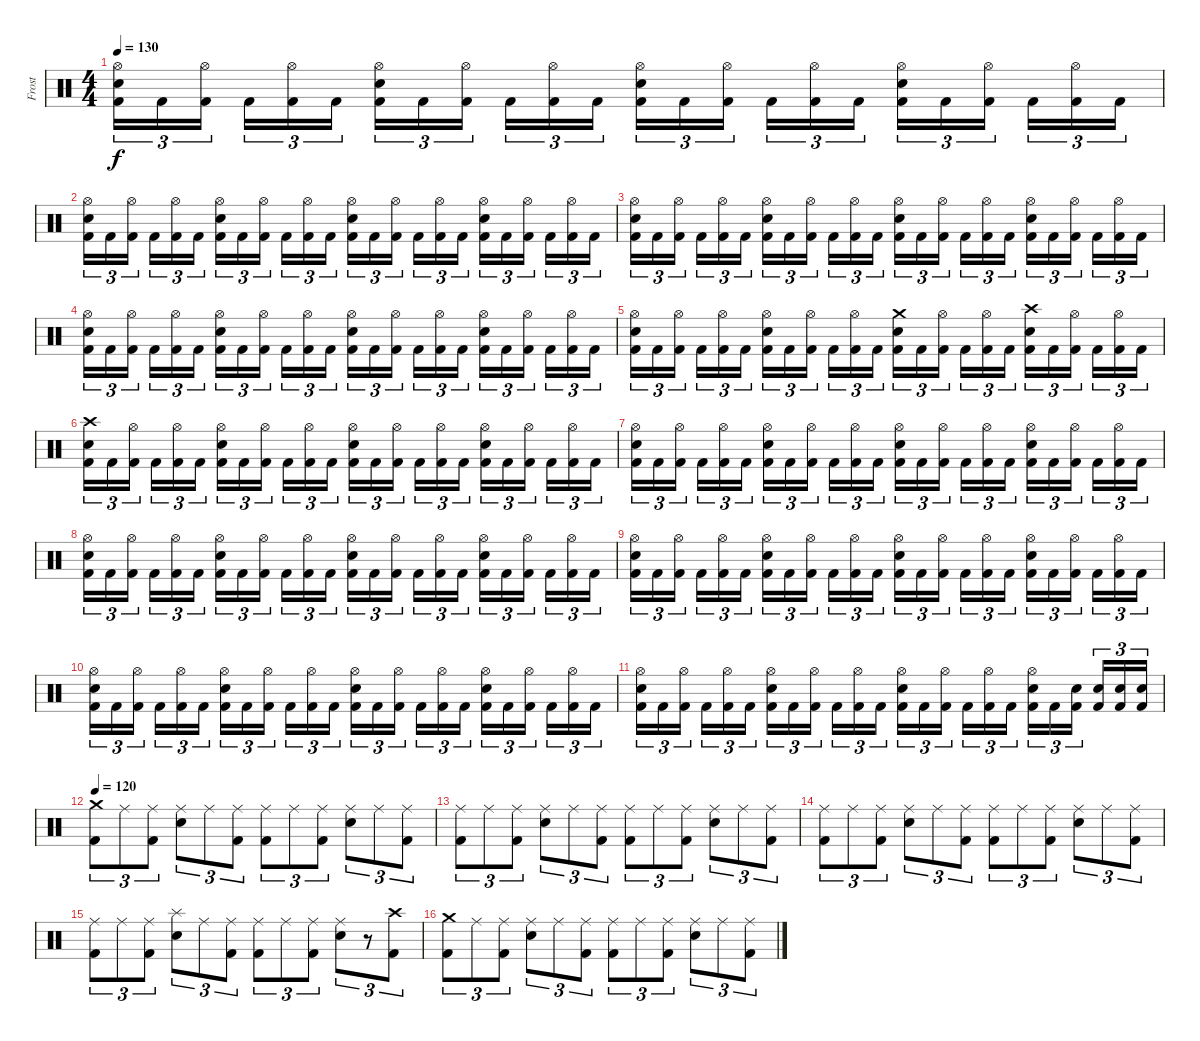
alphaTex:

\track ("Frost" "Frost") {instrument percussion}
\staff {score}
\articulation defaults
\ts (4 4)
\tempo 130
\clef neutral
\ks c
("Hi-Hat (open)" "Electric Snare (hit)" "Kick (hit) 2").16{tu (3 2) dy f} "Kick (hit) 2".16{tu (3 2)} ("Hi-Hat (open)" "Kick (hit) 2").16{tu (3 2)} "Kick (hit) 2".16{tu (3 2)} ("Hi-Hat (open)" "Kick (hit) 2").16{tu (3 2)} "Kick (hit) 2".16{tu (3 2)} ("Hi-Hat (open)" "Electric Snare (hit)" "Kick (hit) 2").16{tu (3 2)} "Kick (hit) 2".16{tu (3 2)} ("Hi-Hat (open)" "Kick (hit) 2").16{tu (3 2)} "Kick (hit) 2".16{tu (3 2)} ("Hi-Hat (open)" "Kick (hit) 2").16{tu (3 2)} "Kick (hit) 2".16{tu (3 2)} ("Hi-Hat (open)" "Electric Snare (hit)" "Kick (hit) 2").16{tu (3 2)} "Kick (hit) 2".16{tu (3 2)} ("Hi-Hat (open)" "Kick (hit) 2").16{tu (3 2)} "Kick (hit) 2".16{tu (3 2)} ("Hi-Hat (open)" "Kick (hit) 2").16{tu (3 2)} "Kick (hit) 2".16{tu (3 2)} ("Hi-Hat (open)" "Electric Snare (hit)" "Kick (hit) 2").16{tu (3 2)} "Kick (hit) 2".16{tu (3 2)} ("Hi-Hat (open)" "Kick (hit) 2").16{tu (3 2)} "Kick (hit) 2".16{tu (3 2)} ("Hi-Hat (open)" "Kick (hit) 2").16{tu (3 2)} "Kick (hit) 2".16{tu (3 2)} |
("Hi-Hat (open)" "Electric Snare (hit)" "Kick (hit) 2").16{tu (3 2)} "Kick (hit) 2".16{tu (3 2)} ("Hi-Hat (open)" "Kick (hit) 2").16{tu (3 2)} "Kick (hit) 2".16{tu (3 2)} ("Hi-Hat (open)" "Kick (hit) 2").16{tu (3 2)} "Kick (hit) 2".16{tu (3 2)} ("Hi-Hat (open)" "Electric Snare (hit)" "Kick (hit) 2").16{tu (3 2)} "Kick (hit) 2".16{tu (3 2)} ("Hi-Hat (open)" "Kick (hit) 2").16{tu (3 2)} "Kick (hit) 2".16{tu (3 2)} ("Hi-Hat (open)" "Kick (hit) 2").16{tu (3 2)} "Kick (hit) 2".16{tu (3 2)} ("Hi-Hat (open)" "Electric Snare (hit)" "Kick (hit) 2").16{tu (3 2)} "Kick (hit) 2".16{tu (3 2)} ("Hi-Hat (open)" "Kick (hit) 2").16{tu (3 2)} "Kick (hit) 2".16{tu (3 2)} ("Hi-Hat (open)" "Kick (hit) 2").16{tu (3 2)} "Kick (hit) 2".16{tu (3 2)} ("Hi-Hat (open)" "Electric Snare (hit)" "Kick (hit) 2").16{tu (3 2)} "Kick (hit) 2".16{tu (3 2)} ("Hi-Hat (open)" "Kick (hit) 2").16{tu (3 2)} "Kick (hit) 2".16{tu (3 2)} ("Hi-Hat (open)" "Kick (hit) 2").16{tu (3 2)} "Kick (hit) 2".16{tu (3 2)} |
("Hi-Hat (open)" "Electric Snare (hit)" "Kick (hit) 2").16{tu (3 2)} "Kick (hit) 2".16{tu (3 2)} ("Hi-Hat (open)" "Kick (hit) 2").16{tu (3 2)} "Kick (hit) 2".16{tu (3 2)} ("Hi-Hat (open)" "Kick (hit) 2").16{tu (3 2)} "Kick (hit) 2".16{tu (3 2)} ("Hi-Hat (open)" "Electric Snare (hit)" "Kick (hit) 2").16{tu (3 2)} "Kick (hit) 2".16{tu (3 2)} ("Hi-Hat (open)" "Kick (hit) 2").16{tu (3 2)} "Kick (hit) 2".16{tu (3 2)} ("Hi-Hat (open)" "Kick (hit) 2").16{tu (3 2)} "Kick (hit) 2".16{tu (3 2)} ("Hi-Hat (open)" "Electric Snare (hit)" "Kick (hit) 2").16{tu (3 2)} "Kick (hit) 2".16{tu (3 2)} ("Hi-Hat (open)" "Kick (hit) 2").16{tu (3 2)} "Kick (hit) 2".16{tu (3 2)} ("Hi-Hat (open)" "Kick (hit) 2").16{tu (3 2)} "Kick (hit) 2".16{tu (3 2)} ("Hi-Hat (open)" "Electric Snare (hit)" "Kick (hit) 2").16{tu (3 2)} "Kick (hit) 2".16{tu (3 2)} ("Hi-Hat (open)" "Kick (hit) 2").16{tu (3 2)} "Kick (hit) 2".16{tu (3 2)} ("Hi-Hat (open)" "Kick (hit) 2").16{tu (3 2)} "Kick (hit) 2".16{tu (3 2)} |
("Hi-Hat (open)" "Electric Snare (hit)" "Kick (hit) 2").16{tu (3 2)} "Kick (hit) 2".16{tu (3 2)} ("Hi-Hat (open)" "Kick (hit) 2").16{tu (3 2)} "Kick (hit) 2".16{tu (3 2)} ("Hi-Hat (open)" "Kick (hit) 2").16{tu (3 2)} "Kick (hit) 2".16{tu (3 2)} ("Hi-Hat (open)" "Electric Snare (hit)" "Kick (hit) 2").16{tu (3 2)} "Kick (hit) 2".16{tu (3 2)} ("Hi-Hat (open)" "Kick (hit) 2").16{tu (3 2)} "Kick (hit) 2".16{tu (3 2)} ("Hi-Hat (open)" "Kick (hit) 2").16{tu (3 2)} "Kick (hit) 2".16{tu (3 2)} ("Hi-Hat (open)" "Electric Snare (hit)" "Kick (hit) 2").16{tu (3 2)} "Kick (hit) 2".16{tu (3 2)} ("Hi-Hat (open)" "Kick (hit) 2").16{tu (3 2)} "Kick (hit) 2".16{tu (3 2)} ("Hi-Hat (open)" "Kick (hit) 2").16{tu (3 2)} "Kick (hit) 2".16{tu (3 2)} ("Hi-Hat (open)" "Electric Snare (hit)" "Kick (hit) 2").16{tu (3 2)} "Kick (hit) 2".16{tu (3 2)} ("Hi-Hat (open)" "Kick (hit) 2").16{tu (3 2)} "Kick (hit) 2".16{tu (3 2)} ("Hi-Hat (open)" "Kick (hit) 2").16{tu (3 2)} "Kick (hit) 2".16{tu (3 2)} |
("Hi-Hat (open)" "Electric Snare (hit)" "Kick (hit) 2").16{tu (3 2)} "Kick (hit) 2".16{tu (3 2)} ("Hi-Hat (open)" "Kick (hit) 2").16{tu (3 2)} "Kick (hit) 2".16{tu (3 2)} ("Hi-Hat (open)" "Kick (hit) 2").16{tu (3 2)} "Kick (hit) 2".16{tu (3 2)} ("Hi-Hat (open)" "Electric Snare (hit)" "Kick (hit) 2").16{tu (3 2)} "Kick (hit) 2".16{tu (3 2)} ("Hi-Hat (open)" "Kick (hit) 2").16{tu (3 2)} "Kick (hit) 2".16{tu (3 2)} ("Hi-Hat (open)" "Kick (hit) 2").16{tu (3 2)} "Kick (hit) 2".16{tu (3 2)} ("Crash medium (hit)" "Electric Snare (hit)" "Kick (hit) 2").16{tu (3 2)} "Kick (hit) 2".16{tu (3 2)} ("Hi-Hat (open)" "Kick (hit) 2").16{tu (3 2)} "Kick (hit) 2".16{tu (3 2)} ("Hi-Hat (open)" "Kick (hit) 2").16{tu (3 2)} "Kick (hit) 2".16{tu (3 2)} ("Crash high (hit)" "Electric Snare (hit)" "Kick (hit) 2").16{tu (3 2)} "Kick (hit) 2".16{tu (3 2)} ("Hi-Hat (open)" "Kick (hit) 2").16{tu (3 2)} "Kick (hit) 2".16{tu (3 2)} ("Hi-Hat (open)" "Kick (hit) 2").16{tu (3 2)} "Kick (hit) 2".16{tu (3 2)} |
("Crash high (hit)" "Electric Snare (hit)" "Kick (hit) 2").16{tu (3 2)} "Kick (hit) 2".16{tu (3 2)} ("Hi-Hat (open)" "Kick (hit) 2").16{tu (3 2)} "Kick (hit) 2".16{tu (3 2)} ("Hi-Hat (open)" "Kick (hit) 2").16{tu (3 2)} "Kick (hit) 2".16{tu (3 2)} ("Hi-Hat (open)" "Electric Snare (hit)" "Kick (hit) 2").16{tu (3 2)} "Kick (hit) 2".16{tu (3 2)} ("Hi-Hat (open)" "Kick (hit) 2").16{tu (3 2)} "Kick (hit) 2".16{tu (3 2)} ("Hi-Hat (open)" "Kick (hit) 2").16{tu (3 2)} "Kick (hit) 2".16{tu (3 2)} ("Hi-Hat (open)" "Electric Snare (hit)" "Kick (hit) 2").16{tu (3 2)} "Kick (hit) 2".16{tu (3 2)} ("Hi-Hat (open)" "Kick (hit) 2").16{tu (3 2)} "Kick (hit) 2".16{tu (3 2)} ("Hi-Hat (open)" "Kick (hit) 2").16{tu (3 2)} "Kick (hit) 2".16{tu (3 2)} ("Hi-Hat (open)" "Electric Snare (hit)" "Kick (hit) 2").16{tu (3 2)} "Kick (hit) 2".16{tu (3 2)} ("Hi-Hat (open)" "Kick (hit) 2").16{tu (3 2)} "Kick (hit) 2".16{tu (3 2)} ("Hi-Hat (open)" "Kick (hit) 2").16{tu (3 2)} "Kick (hit) 2".16{tu (3 2)} |
("Hi-Hat (open)" "Electric Snare (hit)" "Kick (hit) 2").16{tu (3 2)} "Kick (hit) 2".16{tu (3 2)} ("Hi-Hat (open)" "Kick (hit) 2").16{tu (3 2)} "Kick (hit) 2".16{tu (3 2)} ("Hi-Hat (open)" "Kick (hit) 2").16{tu (3 2)} "Kick (hit) 2".16{tu (3 2)} ("Hi-Hat (open)" "Electric Snare (hit)" "Kick (hit) 2").16{tu (3 2)} "Kick (hit) 2".16{tu (3 2)} ("Hi-Hat (open)" "Kick (hit) 2").16{tu (3 2)} "Kick (hit) 2".16{tu (3 2)} ("Hi-Hat (open)" "Kick (hit) 2").16{tu (3 2)} "Kick (hit) 2".16{tu (3 2)} ("Hi-Hat (open)" "Electric Snare (hit)" "Kick (hit) 2").16{tu (3 2)} "Kick (hit) 2".16{tu (3 2)} ("Hi-Hat (open)" "Kick (hit) 2").16{tu (3 2)} "Kick (hit) 2".16{tu (3 2)} ("Hi-Hat (open)" "Kick (hit) 2").16{tu (3 2)} "Kick (hit) 2".16{tu (3 2)} ("Hi-Hat (open)" "Electric Snare (hit)" "Kick (hit) 2").16{tu (3 2)} "Kick (hit) 2".16{tu (3 2)} ("Hi-Hat (open)" "Kick (hit) 2").16{tu (3 2)} "Kick (hit) 2".16{tu (3 2)} ("Hi-Hat (open)" "Kick (hit) 2").16{tu (3 2)} "Kick (hit) 2".16{tu (3 2)} |
("Hi-Hat (open)" "Electric Snare (hit)" "Kick (hit) 2").16{tu (3 2)} "Kick (hit) 2".16{tu (3 2)} ("Hi-Hat (open)" "Kick (hit) 2").16{tu (3 2)} "Kick (hit) 2".16{tu (3 2)} ("Hi-Hat (open)" "Kick (hit) 2").16{tu (3 2)} "Kick (hit) 2".16{tu (3 2)} ("Hi-Hat (open)" "Electric Snare (hit)" "Kick (hit) 2").16{tu (3 2)} "Kick (hit) 2".16{tu (3 2)} ("Hi-Hat (open)" "Kick (hit) 2").16{tu (3 2)} "Kick (hit) 2".16{tu (3 2)} ("Hi-Hat (open)" "Kick (hit) 2").16{tu (3 2)} "Kick (hit) 2".16{tu (3 2)} ("Hi-Hat (open)" "Electric Snare (hit)" "Kick (hit) 2").16{tu (3 2)} "Kick (hit) 2".16{tu (3 2)} ("Hi-Hat (open)" "Kick (hit) 2").16{tu (3 2)} "Kick (hit) 2".16{tu (3 2)} ("Hi-Hat (open)" "Kick (hit) 2").16{tu (3 2)} "Kick (hit) 2".16{tu (3 2)} ("Hi-Hat (open)" "Electric Snare (hit)" "Kick (hit) 2").16{tu (3 2)} "Kick (hit) 2".16{tu (3 2)} ("Hi-Hat (open)" "Kick (hit) 2").16{tu (3 2)} "Kick (hit) 2".16{tu (3 2)} ("Hi-Hat (open)" "Kick (hit) 2").16{tu (3 2)} "Kick (hit) 2".16{tu (3 2)} |
("Hi-Hat (open)" "Electric Snare (hit)" "Kick (hit) 2").16{tu (3 2)} "Kick (hit) 2".16{tu (3 2)} ("Hi-Hat (open)" "Kick (hit) 2").16{tu (3 2)} "Kick (hit) 2".16{tu (3 2)} ("Hi-Hat (open)" "Kick (hit) 2").16{tu (3 2)} "Kick (hit) 2".16{tu (3 2)} ("Hi-Hat (open)" "Electric Snare (hit)" "Kick (hit) 2").16{tu (3 2)} "Kick (hit) 2".16{tu (3 2)} ("Hi-Hat (open)" "Kick (hit) 2").16{tu (3 2)} "Kick (hit) 2".16{tu (3 2)} ("Hi-Hat (open)" "Kick (hit) 2").16{tu (3 2)} "Kick (hit) 2".16{tu (3 2)} ("Hi-Hat (open)" "Electric Snare (hit)" "Kick (hit) 2").16{tu (3 2)} "Kick (hit) 2".16{tu (3 2)} ("Hi-Hat (open)" "Kick (hit) 2").16{tu (3 2)} "Kick (hit) 2".16{tu (3 2)} ("Hi-Hat (open)" "Kick (hit) 2").16{tu (3 2)} "Kick (hit) 2".16{tu (3 2)} ("Hi-Hat (open)" "Electric Snare (hit)" "Kick (hit) 2").16{tu (3 2)} "Kick (hit) 2".16{tu (3 2)} ("Hi-Hat (open)" "Kick (hit) 2").16{tu (3 2)} "Kick (hit) 2".16{tu (3 2)} ("Hi-Hat (open)" "Kick (hit) 2").16{tu (3 2)} "Kick (hit) 2".16{tu (3 2)} |
("Hi-Hat (open)" "Electric Snare (hit)" "Kick (hit) 2").16{tu (3 2)} "Kick (hit) 2".16{tu (3 2)} ("Hi-Hat (open)" "Kick (hit) 2").16{tu (3 2)} "Kick (hit) 2".16{tu (3 2)} ("Hi-Hat (open)" "Kick (hit) 2").16{tu (3 2)} "Kick (hit) 2".16{tu (3 2)} ("Hi-Hat (open)" "Electric Snare (hit)" "Kick (hit) 2").16{tu (3 2)} "Kick (hit) 2".16{tu (3 2)} ("Hi-Hat (open)" "Kick (hit) 2").16{tu (3 2)} "Kick (hit) 2".16{tu (3 2)} ("Hi-Hat (open)" "Kick (hit) 2").16{tu (3 2)} "Kick (hit) 2".16{tu (3 2)} ("Hi-Hat (open)" "Electric Snare (hit)" "Kick (hit) 2").16{tu (3 2)} "Kick (hit) 2".16{tu (3 2)} ("Hi-Hat (open)" "Kick (hit) 2").16{tu (3 2)} "Kick (hit) 2".16{tu (3 2)} ("Hi-Hat (open)" "Kick (hit) 2").16{tu (3 2)} "Kick (hit) 2".16{tu (3 2)} ("Hi-Hat (open)" "Electric Snare (hit)" "Kick (hit) 2").16{tu (3 2)} "Kick (hit) 2".16{tu (3 2)} ("Hi-Hat (open)" "Kick (hit) 2").16{tu (3 2)} "Kick (hit) 2".16{tu (3 2)} ("Hi-Hat (open)" "Kick (hit) 2").16{tu (3 2)} "Kick (hit) 2".16{tu (3 2)} |
("Hi-Hat (open)" "Electric Snare (hit)" "Kick (hit) 2").16{tu (3 2)} "Kick (hit) 2".16{tu (3 2)} ("Hi-Hat (open)" "Kick (hit) 2").16{tu (3 2)} "Kick (hit) 2".16{tu (3 2)} ("Hi-Hat (open)" "Kick (hit) 2").16{tu (3 2)} "Kick (hit) 2".16{tu (3 2)} ("Hi-Hat (open)" "Electric Snare (hit)" "Kick (hit) 2").16{tu (3 2)} "Kick (hit) 2".16{tu (3 2)} ("Hi-Hat (open)" "Kick (hit) 2").16{tu (3 2)} "Kick (hit) 2".16{tu (3 2)} ("Hi-Hat (open)" "Kick (hit) 2").16{tu (3 2)} "Kick (hit) 2".16{tu (3 2)} ("Hi-Hat (open)" "Electric Snare (hit)" "Kick (hit) 2").16{tu (3 2)} "Kick (hit) 2".16{tu (3 2)} ("Hi-Hat (open)" "Kick (hit) 2").16{tu (3 2)} "Kick (hit) 2".16{tu (3 2)} ("Hi-Hat (open)" "Kick (hit) 2").16{tu (3 2)} "Kick (hit) 2".16{tu (3 2)} ("Hi-Hat (open)" "Electric Snare (hit)" "Kick (hit) 2").16{tu (3 2)} "Kick (hit) 2".16{tu (3 2)} ("Electric Snare (hit)" "Kick (hit) 2").16{tu (3 2)} ("Electric Snare (hit)" "Kick (hit) 2").16{tu (3 2)} ("Electric Snare (hit)" "Kick (hit) 2").16{tu (3 2)} ("Electric Snare (hit)" "Kick (hit) 2").16{tu (3 2)} |
\tempo 120
("Crash medium (hit)" "Kick (hit) 2").8{tu (3 2)} "Ride (middle)".8{tu (3 2)} ("Ride (middle)" "Kick (hit) 2").8{tu (3 2)} ("Ride (middle)" "Electric Snare (hit)").8{tu (3 2)} "Ride (middle)".8{tu (3 2)} ("Ride (middle)" "Kick (hit) 2").8{tu (3 2)} ("Ride (middle)" "Kick (hit) 2").8{tu (3 2)} "Ride (middle)".8{tu (3 2)} ("Ride (middle)" "Kick (hit) 2").8{tu (3 2)} ("Ride (middle)" "Electric Snare (hit)").8{tu (3 2)} "Ride (middle)".8{tu (3 2)} ("Ride (middle)" "Kick (hit) 2").8{tu (3 2)} |
("Ride (middle)" "Kick (hit) 2").8{tu (3 2)} "Ride (middle)".8{tu (3 2)} ("Ride (middle)" "Kick (hit) 2").8{tu (3 2)} ("Ride (middle)" "Electric Snare (hit)").8{tu (3 2)} "Ride (middle)".8{tu (3 2)} ("Ride (middle)" "Kick (hit) 2").8{tu (3 2)} ("Ride (middle)" "Kick (hit) 2").8{tu (3 2)} "Ride (middle)".8{tu (3 2)} ("Ride (middle)" "Kick (hit) 2").8{tu (3 2)} ("Ride (middle)" "Electric Snare (hit)").8{tu (3 2)} "Ride (middle)".8{tu (3 2)} ("Ride (middle)" "Kick (hit) 2").8{tu (3 2)} |
("Ride (middle)" "Kick (hit) 2").8{tu (3 2)} "Ride (middle)".8{tu (3 2)} ("Ride (middle)" "Kick (hit) 2").8{tu (3 2)} ("Ride (middle)" "Electric Snare (hit)").8{tu (3 2)} "Ride (middle)".8{tu (3 2)} ("Ride (middle)" "Kick (hit) 2").8{tu (3 2)} ("Ride (middle)" "Kick (hit) 2").8{tu (3 2)} "Ride (middle)".8{tu (3 2)} ("Ride (middle)" "Kick (hit) 2").8{tu (3 2)} ("Ride (middle)" "Electric Snare (hit)").8{tu (3 2)} "Ride (middle)".8{tu (3 2)} ("Ride (middle)" "Kick (hit) 2").8{tu (3 2)} |
("Ride (middle)" "Kick (hit) 2").8{tu (3 2)} "Ride (middle)".8{tu (3 2)} ("Ride (middle)" "Kick (hit) 2").8{tu (3 2)} ("Splash (hit)" "Electric Snare (hit)").8{tu (3 2)} "Ride (middle)".8{tu (3 2)} ("Ride (middle)" "Kick (hit) 2").8{tu (3 2)} ("Ride (middle)" "Kick (hit) 2").8{tu (3 2)} "Ride (middle)".8{tu (3 2)} ("Ride (middle)" "Kick (hit) 2").8{tu (3 2)} ("Ride (middle)" "Electric Snare (hit)").8{tu (3 2)} r.8{tu (3 2)} ("Crash high (hit)" "Kick (hit) 2").8{tu (3 2)} |
("Crash medium (hit)" "Kick (hit) 2").8{tu (3 2)} "Ride (middle)".8{tu (3 2)} ("Ride (middle)" "Kick (hit) 2").8{tu (3 2)} ("Ride (middle)" "Electric Snare (hit)").8{tu (3 2)} "Ride (middle)".8{tu (3 2)} ("Ride (middle)" "Kick (hit) 2").8{tu (3 2)} ("Ride (middle)" "Kick (hit) 2").8{tu (3 2)} "Ride (middle)".8{tu (3 2)} ("Ride (middle)" "Kick (hit) 2").8{tu (3 2)} ("Ride (middle)" "Electric Snare (hit)").8{tu (3 2)} "Ride (middle)".8{tu (3 2)} ("Ride (middle)" "Kick (hit) 2").8{tu (3 2)}
